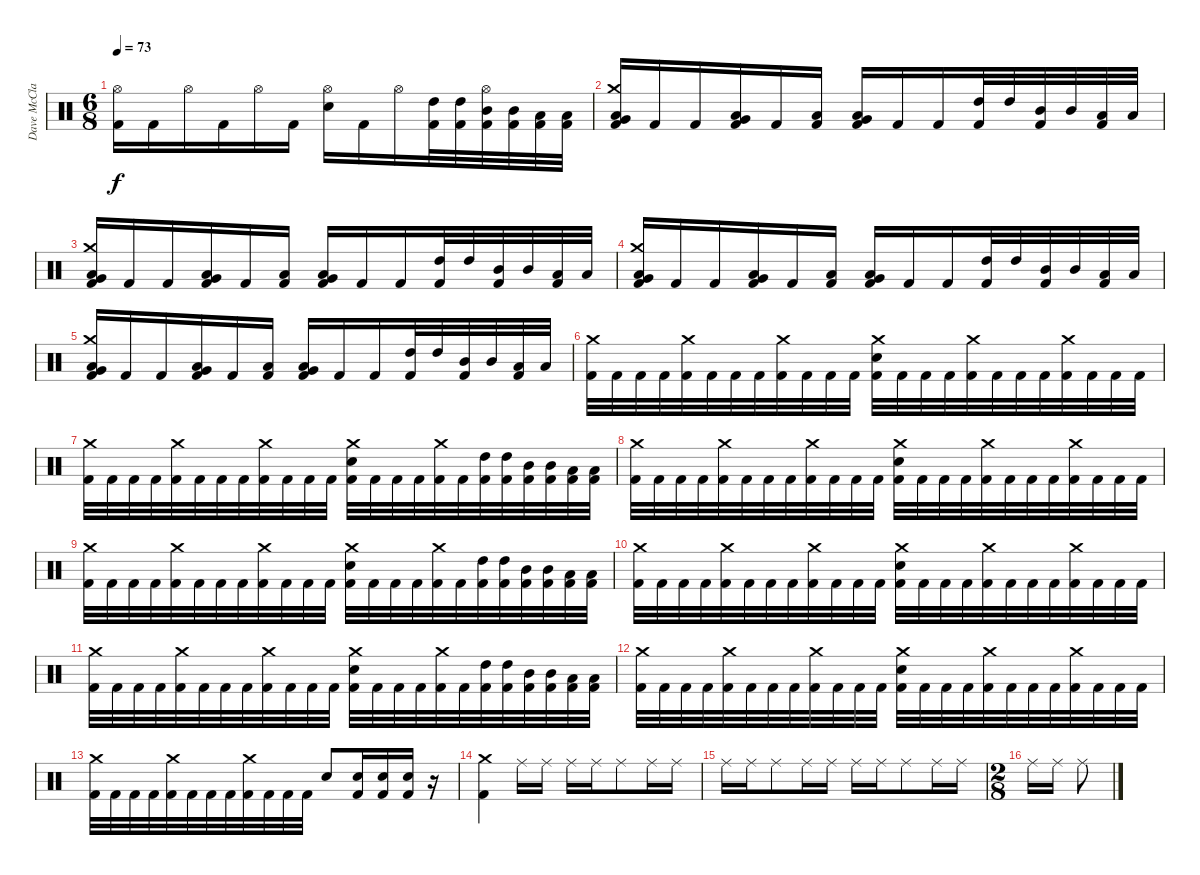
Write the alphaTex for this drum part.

\track ("Dave McClain" "Dave McCla") {instrument percussion}
\staff {score}
\articulation defaults
\ts (6 8)
\tempo 73
\clef neutral
\ks c
("Hi-Hat (open)" "Kick (hit) 2").16{dy f} "Kick (hit) 2".16 "Hi-Hat (open)".16 "Kick (hit) 2".16 "Hi-Hat (open)".16 "Kick (hit) 2".16 ("Hi-Hat (open)" "Snare (hit) 2").16 "Kick (hit) 2".16 "Hi-Hat (open)".16 ("High Tom (hit)" "Kick (hit) 2").32 ("High Tom (hit)" "Kick (hit) 2").32 ("Hi-Hat (open)" "Mid Tom (hit)" "Kick (hit) 2").32 ("Mid Tom (hit)" "Kick (hit) 2").32 ("Low Tom (hit)" "Kick (hit) 2").32 ("Low Tom (hit)" "Kick (hit) 2").32 |
("Crash medium (hit)" "Very Low Tom (hit)" "Low Floor Tom (hit)" "Kick (hit) 2").16 "Kick (hit) 2".16 "Kick (hit) 2".16 ("Very Low Tom (hit)" "Low Floor Tom (hit)" "Kick (hit) 2").16 "Kick (hit) 2".16 ("Low Floor Tom (hit)" "Kick (hit) 2").16 ("Very Low Tom (hit)" "Low Floor Tom (hit)" "Kick (hit) 2").16 "Kick (hit) 2".16 "Kick (hit) 2".16 ("High Tom (hit)" "Kick (hit) 2").32 "High Tom (hit)".32 ("Mid Tom (hit)" "Kick (hit) 2").32 "Mid Tom (hit)".32 ("Low Tom (hit)" "Kick (hit) 2").32 "Low Tom (hit)".32 |
("Crash medium (hit)" "Very Low Tom (hit)" "Low Floor Tom (hit)" "Kick (hit) 2").16 "Kick (hit) 2".16 "Kick (hit) 2".16 ("Very Low Tom (hit)" "Low Floor Tom (hit)" "Kick (hit) 2").16 "Kick (hit) 2".16 ("Low Floor Tom (hit)" "Kick (hit) 2").16 ("Very Low Tom (hit)" "Low Floor Tom (hit)" "Kick (hit) 2").16 "Kick (hit) 2".16 "Kick (hit) 2".16 ("High Tom (hit)" "Kick (hit) 2").32 "High Tom (hit)".32 ("Mid Tom (hit)" "Kick (hit) 2").32 "Mid Tom (hit)".32 ("Low Tom (hit)" "Kick (hit) 2").32 "Low Tom (hit)".32 |
("Crash medium (hit)" "Very Low Tom (hit)" "Low Floor Tom (hit)" "Kick (hit) 2").16 "Kick (hit) 2".16 "Kick (hit) 2".16 ("Very Low Tom (hit)" "Low Floor Tom (hit)" "Kick (hit) 2").16 "Kick (hit) 2".16 ("Low Floor Tom (hit)" "Kick (hit) 2").16 ("Very Low Tom (hit)" "Low Floor Tom (hit)" "Kick (hit) 2").16 "Kick (hit) 2".16 "Kick (hit) 2".16 ("High Tom (hit)" "Kick (hit) 2").32 "High Tom (hit)".32 ("Mid Tom (hit)" "Kick (hit) 2").32 "Mid Tom (hit)".32 ("Low Tom (hit)" "Kick (hit) 2").32 "Low Tom (hit)".32 |
("Crash medium (hit)" "Very Low Tom (hit)" "Low Floor Tom (hit)" "Kick (hit) 2").16 "Kick (hit) 2".16 "Kick (hit) 2".16 ("Very Low Tom (hit)" "Low Floor Tom (hit)" "Kick (hit) 2").16 "Kick (hit) 2".16 ("Low Floor Tom (hit)" "Kick (hit) 2").16 ("Very Low Tom (hit)" "Low Floor Tom (hit)" "Kick (hit) 2").16 "Kick (hit) 2".16 "Kick (hit) 2".16 ("High Tom (hit)" "Kick (hit) 2").32 "High Tom (hit)".32 ("Mid Tom (hit)" "Kick (hit) 2").32 "Mid Tom (hit)".32 ("Low Tom (hit)" "Kick (hit) 2").32 "Low Tom (hit)".32 |
("Crash medium (hit)" "Kick (hit) 2").32 "Kick (hit) 2".32 "Kick (hit) 2".32 "Kick (hit) 2".32 ("Crash medium (hit)" "Kick (hit) 2").32 "Kick (hit) 2".32 "Kick (hit) 2".32 "Kick (hit) 2".32 ("Crash medium (hit)" "Kick (hit) 2").32 "Kick (hit) 2".32 "Kick (hit) 2".32 "Kick (hit) 2".32 ("Crash medium (hit)" "Snare (hit) 2" "Kick (hit) 2").32 "Kick (hit) 2".32 "Kick (hit) 2".32 "Kick (hit) 2".32 ("Crash medium (hit)" "Kick (hit) 2").32 "Kick (hit) 2".32 "Kick (hit) 2".32 "Kick (hit) 2".32 ("Crash medium (hit)" "Kick (hit) 2").32 "Kick (hit) 2".32 "Kick (hit) 2".32 "Kick (hit) 2".32 |
("Crash medium (hit)" "Kick (hit) 2").32 "Kick (hit) 2".32 "Kick (hit) 2".32 "Kick (hit) 2".32 ("Crash medium (hit)" "Kick (hit) 2").32 "Kick (hit) 2".32 "Kick (hit) 2".32 "Kick (hit) 2".32 ("Crash medium (hit)" "Kick (hit) 2").32 "Kick (hit) 2".32 "Kick (hit) 2".32 "Kick (hit) 2".32 ("Crash medium (hit)" "Snare (hit) 2" "Kick (hit) 2").32 "Kick (hit) 2".32 "Kick (hit) 2".32 "Kick (hit) 2".32 ("Crash medium (hit)" "Kick (hit) 2").32 "Kick (hit) 2".32 ("High Tom (hit)" "Kick (hit) 2").32 ("High Tom (hit)" "Kick (hit) 2").32 ("Mid Tom (hit)" "Kick (hit) 2").32 ("Mid Tom (hit)" "Kick (hit) 2").32 ("Low Tom (hit)" "Kick (hit) 2").32 ("Low Tom (hit)" "Kick (hit) 2").32 |
("Crash medium (hit)" "Kick (hit) 2").32 "Kick (hit) 2".32 "Kick (hit) 2".32 "Kick (hit) 2".32 ("Crash medium (hit)" "Kick (hit) 2").32 "Kick (hit) 2".32 "Kick (hit) 2".32 "Kick (hit) 2".32 ("Crash medium (hit)" "Kick (hit) 2").32 "Kick (hit) 2".32 "Kick (hit) 2".32 "Kick (hit) 2".32 ("Crash medium (hit)" "Snare (hit) 2" "Kick (hit) 2").32 "Kick (hit) 2".32 "Kick (hit) 2".32 "Kick (hit) 2".32 ("Crash medium (hit)" "Kick (hit) 2").32 "Kick (hit) 2".32 "Kick (hit) 2".32 "Kick (hit) 2".32 ("Crash medium (hit)" "Kick (hit) 2").32 "Kick (hit) 2".32 "Kick (hit) 2".32 "Kick (hit) 2".32 |
("Crash medium (hit)" "Kick (hit) 2").32 "Kick (hit) 2".32 "Kick (hit) 2".32 "Kick (hit) 2".32 ("Crash medium (hit)" "Kick (hit) 2").32 "Kick (hit) 2".32 "Kick (hit) 2".32 "Kick (hit) 2".32 ("Crash medium (hit)" "Kick (hit) 2").32 "Kick (hit) 2".32 "Kick (hit) 2".32 "Kick (hit) 2".32 ("Crash medium (hit)" "Snare (hit) 2" "Kick (hit) 2").32 "Kick (hit) 2".32 "Kick (hit) 2".32 "Kick (hit) 2".32 ("Crash medium (hit)" "Kick (hit) 2").32 "Kick (hit) 2".32 ("High Tom (hit)" "Kick (hit) 2").32 ("High Tom (hit)" "Kick (hit) 2").32 ("Mid Tom (hit)" "Kick (hit) 2").32 ("Mid Tom (hit)" "Kick (hit) 2").32 ("Low Tom (hit)" "Kick (hit) 2").32 ("Low Tom (hit)" "Kick (hit) 2").32 |
("Crash medium (hit)" "Kick (hit) 2").32 "Kick (hit) 2".32 "Kick (hit) 2".32 "Kick (hit) 2".32 ("Crash medium (hit)" "Kick (hit) 2").32 "Kick (hit) 2".32 "Kick (hit) 2".32 "Kick (hit) 2".32 ("Crash medium (hit)" "Kick (hit) 2").32 "Kick (hit) 2".32 "Kick (hit) 2".32 "Kick (hit) 2".32 ("Crash medium (hit)" "Snare (hit) 2" "Kick (hit) 2").32 "Kick (hit) 2".32 "Kick (hit) 2".32 "Kick (hit) 2".32 ("Crash medium (hit)" "Kick (hit) 2").32 "Kick (hit) 2".32 "Kick (hit) 2".32 "Kick (hit) 2".32 ("Crash medium (hit)" "Kick (hit) 2").32 "Kick (hit) 2".32 "Kick (hit) 2".32 "Kick (hit) 2".32 |
("Crash medium (hit)" "Kick (hit) 2").32 "Kick (hit) 2".32 "Kick (hit) 2".32 "Kick (hit) 2".32 ("Crash medium (hit)" "Kick (hit) 2").32 "Kick (hit) 2".32 "Kick (hit) 2".32 "Kick (hit) 2".32 ("Crash medium (hit)" "Kick (hit) 2").32 "Kick (hit) 2".32 "Kick (hit) 2".32 "Kick (hit) 2".32 ("Crash medium (hit)" "Snare (hit) 2" "Kick (hit) 2").32 "Kick (hit) 2".32 "Kick (hit) 2".32 "Kick (hit) 2".32 ("Crash medium (hit)" "Kick (hit) 2").32 "Kick (hit) 2".32 ("High Tom (hit)" "Kick (hit) 2").32 ("High Tom (hit)" "Kick (hit) 2").32 ("Mid Tom (hit)" "Kick (hit) 2").32 ("Mid Tom (hit)" "Kick (hit) 2").32 ("Low Tom (hit)" "Kick (hit) 2").32 ("Low Tom (hit)" "Kick (hit) 2").32 |
("Crash medium (hit)" "Kick (hit) 2").32 "Kick (hit) 2".32 "Kick (hit) 2".32 "Kick (hit) 2".32 ("Crash medium (hit)" "Kick (hit) 2").32 "Kick (hit) 2".32 "Kick (hit) 2".32 "Kick (hit) 2".32 ("Crash medium (hit)" "Kick (hit) 2").32 "Kick (hit) 2".32 "Kick (hit) 2".32 "Kick (hit) 2".32 ("Crash medium (hit)" "Snare (hit) 2" "Kick (hit) 2").32 "Kick (hit) 2".32 "Kick (hit) 2".32 "Kick (hit) 2".32 ("Crash medium (hit)" "Kick (hit) 2").32 "Kick (hit) 2".32 "Kick (hit) 2".32 "Kick (hit) 2".32 ("Crash medium (hit)" "Kick (hit) 2").32 "Kick (hit) 2".32 "Kick (hit) 2".32 "Kick (hit) 2".32 |
("Crash medium (hit)" "Kick (hit) 2").32 "Kick (hit) 2".32 "Kick (hit) 2".32 "Kick (hit) 2".32 ("Crash medium (hit)" "Kick (hit) 2").32 "Kick (hit) 2".32 "Kick (hit) 2".32 "Kick (hit) 2".32 ("Crash medium (hit)" "Kick (hit) 2").32 "Kick (hit) 2".32 "Kick (hit) 2".32 "Kick (hit) 2".32 "Snare (hit) 2".8 ("Snare (hit) 2" "Kick (hit) 2").16 ("Snare (hit) 2" "Kick (hit) 2").16 ("Snare (hit) 2" "Kick (hit) 2").16 r.16 |
("Crash medium (hit)" "Kick (hit) 2").4 "Ride (middle)".16 "Ride (middle)".16 "Ride (middle)".16 "Ride (middle)".16 "Ride (middle)".8 "Ride (middle)".16 "Ride (middle)".16 |
"Ride (middle)".16 "Ride (middle)".16 "Ride (middle)".8 "Ride (middle)".16 "Ride (middle)".16 "Ride (middle)".16 "Ride (middle)".16 "Ride (middle)".8 "Ride (middle)".16 "Ride (middle)".16 |
\ts (2 8)
"Ride (middle)".16 "Ride (middle)".16 "Ride (middle)".8
